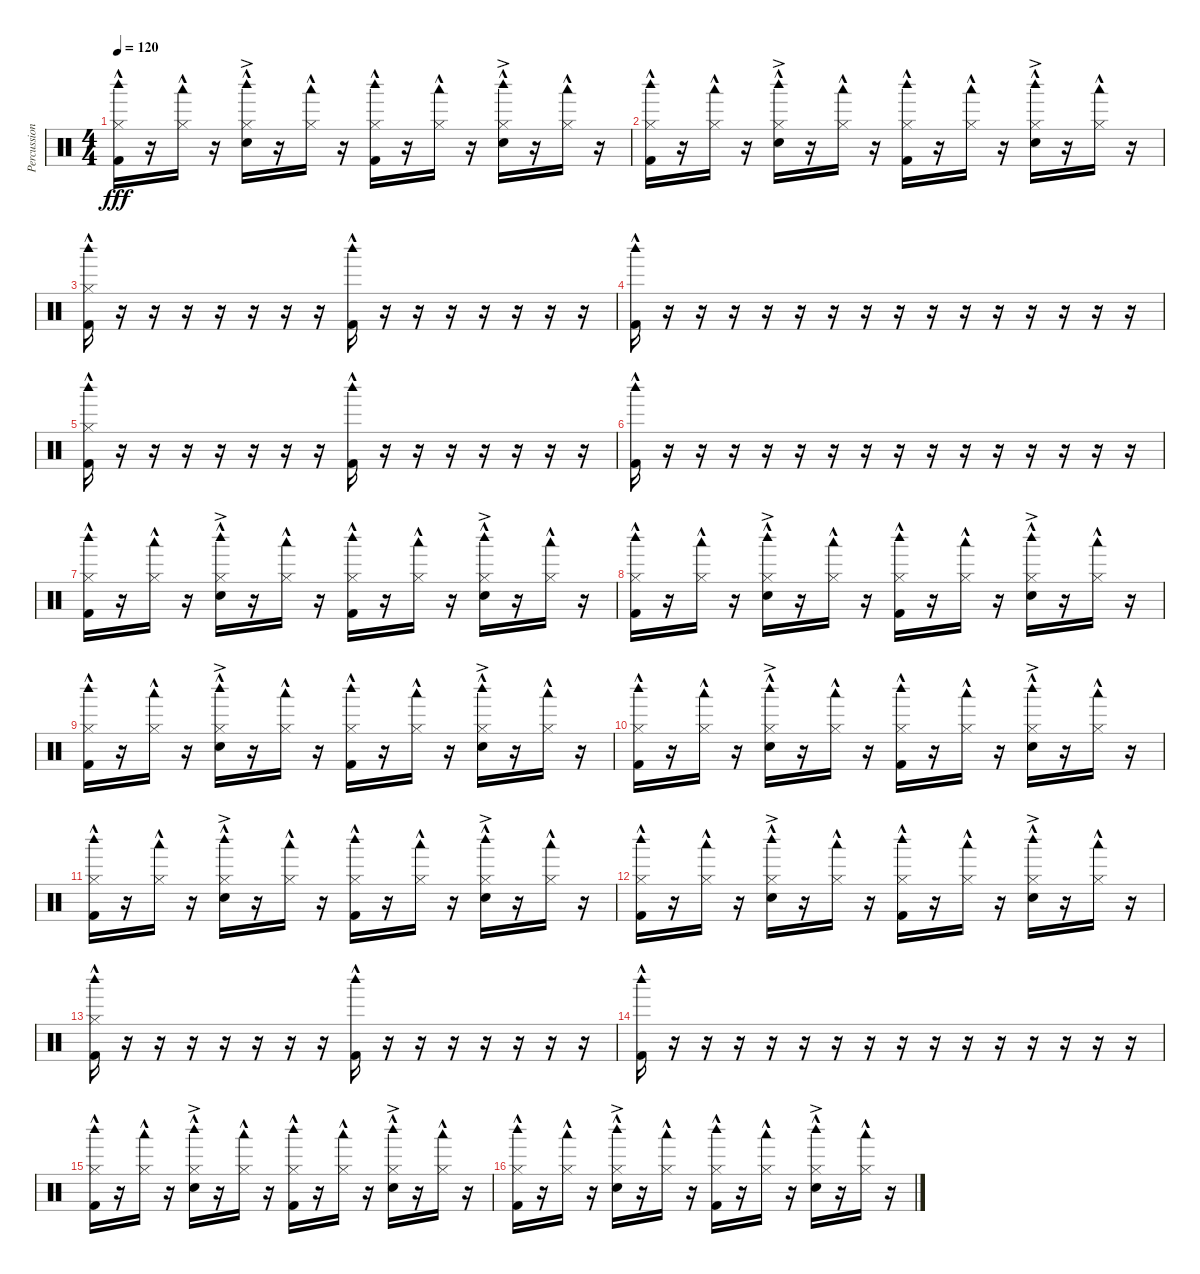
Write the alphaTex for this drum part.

\track ("Percussion" "Percussion") {instrument percussion}
\staff {score}
\articulation defaults
\ts (4 4)
\tempo 120
\clef neutral
\ks c
("Hi-Hat (closed)"{hac} "Woodblock high (hit)"{hac} "Kick (hit) 2"{hac}).16{dy fff} r.16 ("Hi-Hat (closed)"{hac} "Woodblock low (hit)"{hac}).16 r.16 ("Hi-Hat (closed)"{hac} "Snare (hit) 2"{ac} "Woodblock high (hit)"{hac}).16 r.16 ("Hi-Hat (closed)"{hac} "Woodblock low (hit)"{hac}).16 r.16 ("Hi-Hat (closed)"{hac} "Woodblock high (hit)"{hac} "Kick (hit) 2"{hac}).16 r.16 ("Hi-Hat (closed)"{hac} "Woodblock low (hit)"{hac}).16 r.16 ("Hi-Hat (closed)"{hac} "Snare (hit) 2"{ac} "Woodblock high (hit)"{hac}).16 r.16 ("Hi-Hat (closed)"{hac} "Woodblock low (hit)"{hac}).16 r.16 |
("Hi-Hat (closed)"{hac} "Woodblock high (hit)"{hac} "Kick (hit) 2"{hac}).16 r.16 ("Hi-Hat (closed)"{hac} "Woodblock low (hit)"{hac}).16 r.16 ("Hi-Hat (closed)"{hac} "Snare (hit) 2"{ac} "Woodblock high (hit)"{hac}).16 r.16 ("Hi-Hat (closed)"{hac} "Woodblock low (hit)"{hac}).16 r.16 ("Hi-Hat (closed)"{hac} "Woodblock high (hit)"{hac} "Kick (hit) 2"{hac}).16 r.16 ("Hi-Hat (closed)"{hac} "Woodblock low (hit)"{hac}).16 r.16 ("Hi-Hat (closed)"{hac} "Snare (hit) 2"{ac} "Woodblock high (hit)"{hac}).16 r.16 ("Hi-Hat (closed)"{hac} "Woodblock low (hit)"{hac}).16 r.16 |
("Hi-Hat (closed)"{hac} "Woodblock high (hit)"{hac} "Kick (hit) 2"{hac}).16 r.16 r.16 r.16 r.16 r.16 r.16 r.16 ("Woodblock high (hit)"{hac} "Kick (hit) 2"{hac}).16 r.16 r.16 r.16 r.16 r.16 r.16 r.16 |
("Woodblock high (hit)"{hac} "Kick (hit) 2"{hac}).16 r.16 r.16 r.16 r.16 r.16 r.16 r.16 r.16 r.16 r.16 r.16 r.16 r.16 r.16 r.16 |
("Hi-Hat (closed)"{hac} "Woodblock high (hit)"{hac} "Kick (hit) 2"{hac}).16 r.16 r.16 r.16 r.16 r.16 r.16 r.16 ("Woodblock high (hit)"{hac} "Kick (hit) 2"{hac}).16 r.16 r.16 r.16 r.16 r.16 r.16 r.16 |
("Woodblock high (hit)"{hac} "Kick (hit) 2"{hac}).16 r.16 r.16 r.16 r.16 r.16 r.16 r.16 r.16 r.16 r.16 r.16 r.16 r.16 r.16 r.16 |
("Hi-Hat (closed)"{hac} "Woodblock high (hit)"{hac} "Kick (hit) 2"{hac}).16 r.16 ("Hi-Hat (closed)"{hac} "Woodblock low (hit)"{hac}).16 r.16 ("Hi-Hat (closed)"{hac} "Snare (hit) 2"{ac} "Woodblock high (hit)"{hac}).16 r.16 ("Hi-Hat (closed)"{hac} "Woodblock low (hit)"{hac}).16 r.16 ("Hi-Hat (closed)"{hac} "Woodblock high (hit)"{hac} "Kick (hit) 2"{hac}).16 r.16 ("Hi-Hat (closed)"{hac} "Woodblock low (hit)"{hac}).16 r.16 ("Hi-Hat (closed)"{hac} "Snare (hit) 2"{ac} "Woodblock high (hit)"{hac}).16 r.16 ("Hi-Hat (closed)"{hac} "Woodblock low (hit)"{hac}).16 r.16 |
("Hi-Hat (closed)"{hac} "Woodblock high (hit)"{hac} "Kick (hit) 2"{hac}).16 r.16 ("Hi-Hat (closed)"{hac} "Woodblock low (hit)"{hac}).16 r.16 ("Hi-Hat (closed)"{hac} "Snare (hit) 2"{ac} "Woodblock high (hit)"{hac}).16 r.16 ("Hi-Hat (closed)"{hac} "Woodblock low (hit)"{hac}).16 r.16 ("Hi-Hat (closed)"{hac} "Woodblock high (hit)"{hac} "Kick (hit) 2"{hac}).16 r.16 ("Hi-Hat (closed)"{hac} "Woodblock low (hit)"{hac}).16 r.16 ("Hi-Hat (closed)"{hac} "Snare (hit) 2"{ac} "Woodblock high (hit)"{hac}).16 r.16 ("Hi-Hat (closed)"{hac} "Woodblock low (hit)"{hac}).16 r.16 |
("Hi-Hat (closed)"{hac} "Woodblock high (hit)"{hac} "Kick (hit) 2"{hac}).16 r.16 ("Hi-Hat (closed)"{hac} "Woodblock low (hit)"{hac}).16 r.16 ("Hi-Hat (closed)"{hac} "Snare (hit) 2"{ac} "Woodblock high (hit)"{hac}).16 r.16 ("Hi-Hat (closed)"{hac} "Woodblock low (hit)"{hac}).16 r.16 ("Hi-Hat (closed)"{hac} "Woodblock high (hit)"{hac} "Kick (hit) 2"{hac}).16 r.16 ("Hi-Hat (closed)"{hac} "Woodblock low (hit)"{hac}).16 r.16 ("Hi-Hat (closed)"{hac} "Snare (hit) 2"{ac} "Woodblock high (hit)"{hac}).16 r.16 ("Hi-Hat (closed)"{hac} "Woodblock low (hit)"{hac}).16 r.16 |
("Hi-Hat (closed)"{hac} "Woodblock high (hit)"{hac} "Kick (hit) 2"{hac}).16 r.16 ("Hi-Hat (closed)"{hac} "Woodblock low (hit)"{hac}).16 r.16 ("Hi-Hat (closed)"{hac} "Snare (hit) 2"{ac} "Woodblock high (hit)"{hac}).16 r.16 ("Hi-Hat (closed)"{hac} "Woodblock low (hit)"{hac}).16 r.16 ("Hi-Hat (closed)"{hac} "Woodblock high (hit)"{hac} "Kick (hit) 2"{hac}).16 r.16 ("Hi-Hat (closed)"{hac} "Woodblock low (hit)"{hac}).16 r.16 ("Hi-Hat (closed)"{hac} "Snare (hit) 2"{ac} "Woodblock high (hit)"{hac}).16 r.16 ("Hi-Hat (closed)"{hac} "Woodblock low (hit)"{hac}).16 r.16 |
("Hi-Hat (closed)"{hac} "Woodblock high (hit)"{hac} "Kick (hit) 2"{hac}).16 r.16 ("Hi-Hat (closed)"{hac} "Woodblock low (hit)"{hac}).16 r.16 ("Hi-Hat (closed)"{hac} "Snare (hit) 2"{ac} "Woodblock high (hit)"{hac}).16 r.16 ("Hi-Hat (closed)"{hac} "Woodblock low (hit)"{hac}).16 r.16 ("Hi-Hat (closed)"{hac} "Woodblock high (hit)"{hac} "Kick (hit) 2"{hac}).16 r.16 ("Hi-Hat (closed)"{hac} "Woodblock low (hit)"{hac}).16 r.16 ("Hi-Hat (closed)"{hac} "Snare (hit) 2"{ac} "Woodblock high (hit)"{hac}).16 r.16 ("Hi-Hat (closed)"{hac} "Woodblock low (hit)"{hac}).16 r.16 |
("Hi-Hat (closed)"{hac} "Woodblock high (hit)"{hac} "Kick (hit) 2"{hac}).16 r.16 ("Hi-Hat (closed)"{hac} "Woodblock low (hit)"{hac}).16 r.16 ("Hi-Hat (closed)"{hac} "Snare (hit) 2"{ac} "Woodblock high (hit)"{hac}).16 r.16 ("Hi-Hat (closed)"{hac} "Woodblock low (hit)"{hac}).16 r.16 ("Hi-Hat (closed)"{hac} "Woodblock high (hit)"{hac} "Kick (hit) 2"{hac}).16 r.16 ("Hi-Hat (closed)"{hac} "Woodblock low (hit)"{hac}).16 r.16 ("Hi-Hat (closed)"{hac} "Snare (hit) 2"{ac} "Woodblock high (hit)"{hac}).16 r.16 ("Hi-Hat (closed)"{hac} "Woodblock low (hit)"{hac}).16 r.16 |
("Hi-Hat (closed)"{hac} "Woodblock high (hit)"{hac} "Kick (hit) 2"{hac}).16 r.16 r.16 r.16 r.16 r.16 r.16 r.16 ("Woodblock high (hit)"{hac} "Kick (hit) 2"{hac}).16 r.16 r.16 r.16 r.16 r.16 r.16 r.16 |
("Woodblock high (hit)"{hac} "Kick (hit) 2"{hac}).16 r.16 r.16 r.16 r.16 r.16 r.16 r.16 r.16 r.16 r.16 r.16 r.16 r.16 r.16 r.16 |
("Hi-Hat (closed)"{hac} "Woodblock high (hit)"{hac} "Kick (hit) 2"{hac}).16 r.16 ("Hi-Hat (closed)"{hac} "Woodblock low (hit)"{hac}).16 r.16 ("Hi-Hat (closed)"{hac} "Snare (hit) 2"{ac} "Woodblock high (hit)"{hac}).16 r.16 ("Hi-Hat (closed)"{hac} "Woodblock low (hit)"{hac}).16 r.16 ("Hi-Hat (closed)"{hac} "Woodblock high (hit)"{hac} "Kick (hit) 2"{hac}).16 r.16 ("Hi-Hat (closed)"{hac} "Woodblock low (hit)"{hac}).16 r.16 ("Hi-Hat (closed)"{hac} "Snare (hit) 2"{ac} "Woodblock high (hit)"{hac}).16 r.16 ("Hi-Hat (closed)"{hac} "Woodblock low (hit)"{hac}).16 r.16 |
("Hi-Hat (closed)"{hac} "Woodblock high (hit)"{hac} "Kick (hit) 2"{hac}).16 r.16 ("Hi-Hat (closed)"{hac} "Woodblock low (hit)"{hac}).16 r.16 ("Hi-Hat (closed)"{hac} "Snare (hit) 2"{ac} "Woodblock high (hit)"{hac}).16 r.16 ("Hi-Hat (closed)"{hac} "Woodblock low (hit)"{hac}).16 r.16 ("Hi-Hat (closed)"{hac} "Woodblock high (hit)"{hac} "Kick (hit) 2"{hac}).16 r.16 ("Hi-Hat (closed)"{hac} "Woodblock low (hit)"{hac}).16 r.16 ("Hi-Hat (closed)"{hac} "Snare (hit) 2"{ac} "Woodblock high (hit)"{hac}).16 r.16 ("Hi-Hat (closed)"{hac} "Woodblock low (hit)"{hac}).16 r.16
